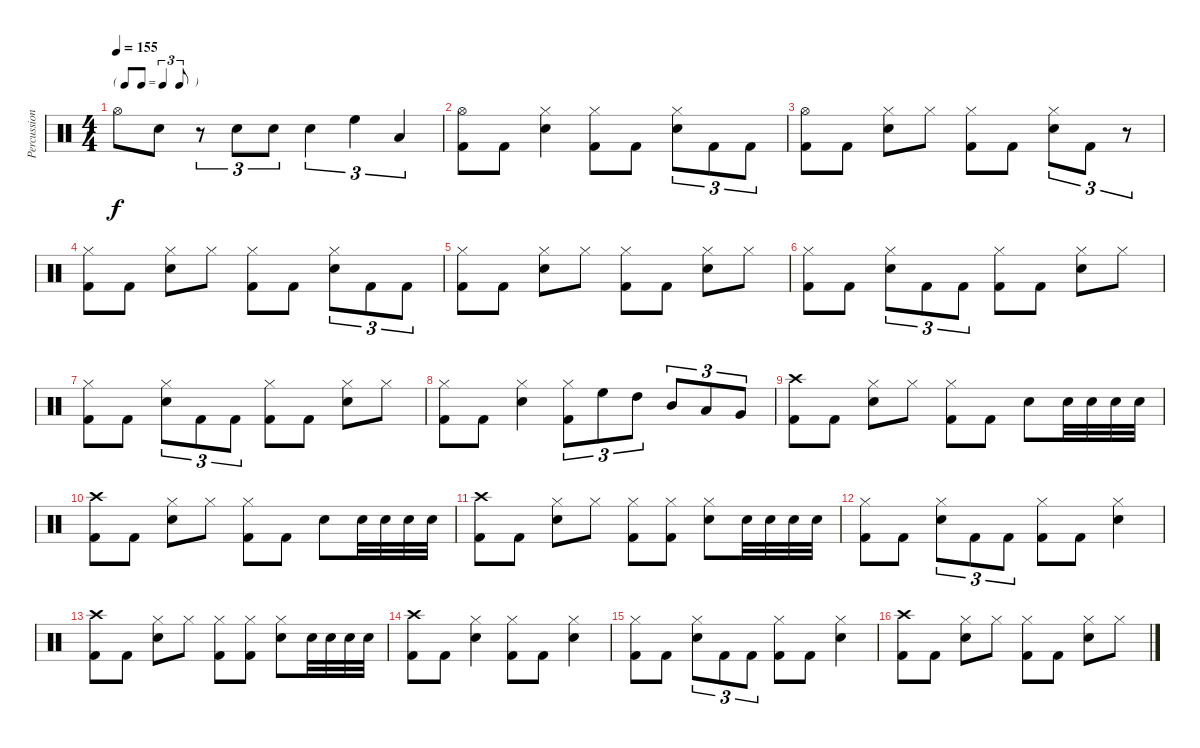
\track ("Percussion" "Percussion") {instrument percussion}
\staff {score}
\articulation defaults
\ts (4 4)
\tf triplet8th
\tempo 155
\clef neutral
\ks c "Hi-Hat (open)".8{dy f} "Snare (hit) 2".8
r.8{tu (3 2)} "Snare (hit) 2".8{tu (3 2)} "Snare (hit) 2".8{tu (3 2)} "Snare (hit) 2".4{tu (3 2)} "High Floor Tom (hit)".4{tu (3 2)} "Low Tom (hit)".4{tu (3 2)} |
("Kick (hit) 2" "Hi-Hat (open)").8 "Kick (hit) 2".8 ("Snare (hit) 2" "Hi-Hat (closed)").4 ("Kick (hit) 2" "Hi-Hat (closed)").8 "Kick (hit) 2".8 ("Snare (hit) 2" "Hi-Hat (closed)").8{tu (3 2)} "Kick (hit) 2".8{tu (3 2)} "Kick (hit) 2".8{tu (3 2)} |
("Kick (hit) 2" "Hi-Hat (open)").8 "Kick (hit) 2".8 ("Snare (hit) 2" "Hi-Hat (closed)").8 "Hi-Hat (closed)".8 ("Kick (hit) 2" "Hi-Hat (closed)").8 "Kick (hit) 2".8 ("Snare (hit) 2" "Hi-Hat (closed)").8{tu (3 2)} "Kick (hit) 2".8{tu (3 2)} r.8{tu (3 2)} |
("Kick (hit) 2" "Hi-Hat (closed)").8 "Kick (hit) 2".8 ("Snare (hit) 2" "Hi-Hat (closed)").8 "Hi-Hat (closed)".8 ("Kick (hit) 2" "Hi-Hat (closed)").8 "Kick (hit) 2".8 ("Snare (hit) 2" "Hi-Hat (closed)").8{tu (3 2)} "Kick (hit) 2".8{tu (3 2)} "Kick (hit) 2".8{tu (3 2)} |
("Kick (hit) 2" "Hi-Hat (closed)").8 "Kick (hit) 2".8 ("Snare (hit) 2" "Hi-Hat (closed)").8 "Hi-Hat (closed)".8 ("Kick (hit) 2" "Hi-Hat (closed)").8 "Kick (hit) 2".8 ("Snare (hit) 2" "Hi-Hat (closed)").8 "Hi-Hat (closed)".8 |
("Kick (hit) 2" "Hi-Hat (closed)").8 "Kick (hit) 2".8 ("Snare (hit) 2" "Hi-Hat (closed)").8{tu (3 2)} "Kick (hit) 2".8{tu (3 2)} "Kick (hit) 2".8{tu (3 2)} ("Kick (hit) 2" "Hi-Hat (closed)").8 "Kick (hit) 2".8 ("Snare (hit) 2" "Hi-Hat (closed)").8 "Hi-Hat (closed)".8 |
("Kick (hit) 2" "Hi-Hat (closed)").8 "Kick (hit) 2".8 ("Snare (hit) 2" "Hi-Hat (closed)").8{tu (3 2)} "Kick (hit) 2".8{tu (3 2)} "Kick (hit) 2".8{tu (3 2)} ("Kick (hit) 2" "Hi-Hat (closed)").8 "Kick (hit) 2".8 ("Snare (hit) 2" "Hi-Hat (closed)").8 "Hi-Hat (closed)".8 |
("Kick (hit) 2" "Hi-Hat (closed)").8 "Kick (hit) 2".8 ("Snare (hit) 2" "Hi-Hat (closed)").4 ("Kick (hit) 2" "Hi-Hat (closed)").8{tu (3 2)} "High Floor Tom (hit)".8{tu (3 2)} "High Tom (hit)".8{tu (3 2)} "Mid Tom (hit)".8{tu (3 2)} "Low Tom (hit)".8{tu (3 2)} "Very Low Tom (hit)".8{tu (3 2)} |
("Kick (hit) 2" "Crash high (hit)").8 "Kick (hit) 2".8 ("Snare (hit) 2" "Hi-Hat (closed)").8 "Hi-Hat (closed)".8 ("Kick (hit) 2" "Hi-Hat (closed)").8 "Kick (hit) 2".8 "Snare (hit) 2".8 "Snare (hit) 2".32 "Snare (hit) 2".32 "Snare (hit) 2".32 "Snare (hit) 2".32 |
("Kick (hit) 2" "Crash high (hit)").8 "Kick (hit) 2".8 ("Snare (hit) 2" "Hi-Hat (closed)").8 "Hi-Hat (closed)".8 ("Kick (hit) 2" "Hi-Hat (closed)").8 "Kick (hit) 2".8 "Snare (hit) 2".8 "Snare (hit) 2".32 "Snare (hit) 2".32 "Snare (hit) 2".32 "Snare (hit) 2".32 |
("Kick (hit) 2" "Crash high (hit)").8 "Kick (hit) 2".8 ("Snare (hit) 2" "Hi-Hat (closed)").8 "Hi-Hat (closed)".8 ("Kick (hit) 2" "Hi-Hat (closed)").8 ("Kick (hit) 2" "Hi-Hat (closed)").8 ("Snare (hit) 2" "Hi-Hat (closed)").8 "Snare (hit) 2".32 "Snare (hit) 2".32 "Snare (hit) 2".32 "Snare (hit) 2".32 |
("Kick (hit) 2" "Hi-Hat (closed)").8 "Kick (hit) 2".8 ("Snare (hit) 2" "Hi-Hat (closed)").8{tu (3 2)} "Kick (hit) 2".8{tu (3 2)} "Kick (hit) 2".8{tu (3 2)} ("Kick (hit) 2" "Hi-Hat (closed)").8 "Kick (hit) 2".8 ("Snare (hit) 2" "Hi-Hat (closed)").4 |
("Kick (hit) 2" "Crash high (hit)").8 "Kick (hit) 2".8 ("Snare (hit) 2" "Hi-Hat (closed)").8 "Hi-Hat (closed)".8 ("Kick (hit) 2" "Hi-Hat (closed)").8 ("Kick (hit) 2" "Hi-Hat (closed)").8 ("Snare (hit) 2" "Hi-Hat (closed)").8 "Snare (hit) 2".32 "Snare (hit) 2".32 "Snare (hit) 2".32 "Snare (hit) 2".32 |
("Kick (hit) 2" "Crash high (hit)").8 "Kick (hit) 2".8 ("Snare (hit) 2" "Hi-Hat (closed)").4 ("Kick (hit) 2" "Hi-Hat (closed)").8 "Kick (hit) 2".8 ("Snare (hit) 2" "Hi-Hat (closed)").4 |
("Kick (hit) 2" "Hi-Hat (closed)").8 "Kick (hit) 2".8 ("Snare (hit) 2" "Hi-Hat (closed)").8{tu (3 2)} "Kick (hit) 2".8{tu (3 2)} "Kick (hit) 2".8{tu (3 2)} ("Kick (hit) 2" "Hi-Hat (closed)").8 "Kick (hit) 2".8 ("Snare (hit) 2" "Hi-Hat (closed)").4 |
("Kick (hit) 2" "Crash high (hit)").8 "Kick (hit) 2".8 ("Snare (hit) 2" "Hi-Hat (closed)").8 "Hi-Hat (closed)".8 ("Kick (hit) 2" "Hi-Hat (closed)").8 "Kick (hit) 2".8 ("Snare (hit) 2" "Hi-Hat (closed)").8 "Hi-Hat (closed)".8
